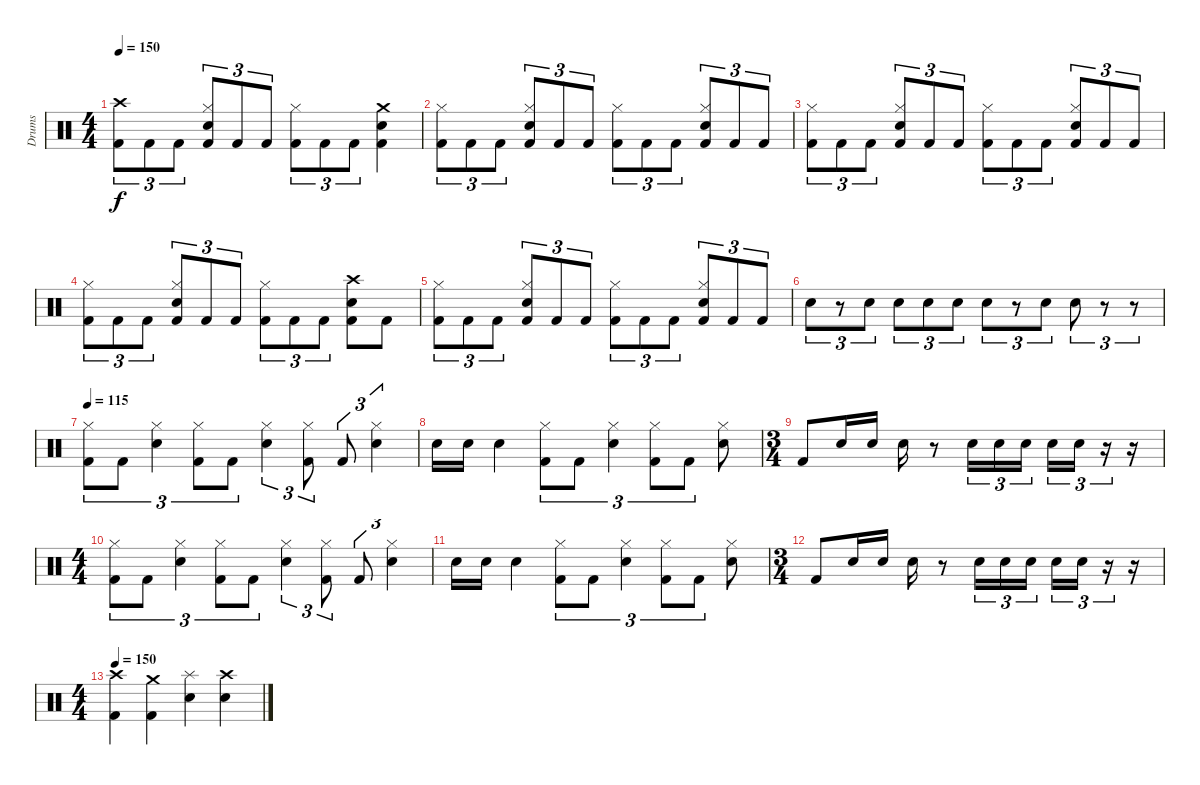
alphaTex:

\track ("Drums" "Drums") {instrument percussion}
\staff {score}
\articulation defaults
\ts (4 4)
\tempo 150
\clef neutral
\ks c
("Crash high (hit)" "Kick (hit) 2").8{tu (3 2) dy f} "Kick (hit) 2".8{tu (3 2)} "Kick (hit) 2".8{tu (3 2)} ("Hi-Hat (closed)" "Snare (hit) 2" "Kick (hit) 2").8{tu (3 2)} "Kick (hit) 2".8{tu (3 2)} "Kick (hit) 2".8{tu (3 2)} ("Hi-Hat (closed)" "Kick (hit) 2").8{tu (3 2)} "Kick (hit) 2".8{tu (3 2)} "Kick (hit) 2".8{tu (3 2)} ("Crash medium (hit)" "Snare (hit) 2" "Kick (hit) 2").4 |
("Hi-Hat (closed)" "Kick (hit) 2").8{tu (3 2)} "Kick (hit) 2".8{tu (3 2)} "Kick (hit) 2".8{tu (3 2)} ("Hi-Hat (closed)" "Snare (hit) 2" "Kick (hit) 2").8{tu (3 2)} "Kick (hit) 2".8{tu (3 2)} "Kick (hit) 2".8{tu (3 2)} ("Hi-Hat (closed)" "Kick (hit) 2").8{tu (3 2)} "Kick (hit) 2".8{tu (3 2)} "Kick (hit) 2".8{tu (3 2)} ("Hi-Hat (closed)" "Snare (hit) 2" "Kick (hit) 2").8{tu (3 2)} "Kick (hit) 2".8{tu (3 2)} "Kick (hit) 2".8{tu (3 2)} |
("Hi-Hat (closed)" "Kick (hit) 2").8{tu (3 2)} "Kick (hit) 2".8{tu (3 2)} "Kick (hit) 2".8{tu (3 2)} ("Hi-Hat (closed)" "Snare (hit) 2" "Kick (hit) 2").8{tu (3 2)} "Kick (hit) 2".8{tu (3 2)} "Kick (hit) 2".8{tu (3 2)} ("Hi-Hat (closed)" "Kick (hit) 2").8{tu (3 2)} "Kick (hit) 2".8{tu (3 2)} "Kick (hit) 2".8{tu (3 2)} ("Hi-Hat (closed)" "Snare (hit) 2" "Kick (hit) 2").8{tu (3 2)} "Kick (hit) 2".8{tu (3 2)} "Kick (hit) 2".8{tu (3 2)} |
("Hi-Hat (closed)" "Kick (hit) 2").8{tu (3 2)} "Kick (hit) 2".8{tu (3 2)} "Kick (hit) 2".8{tu (3 2)} ("Hi-Hat (closed)" "Snare (hit) 2" "Kick (hit) 2").8{tu (3 2)} "Kick (hit) 2".8{tu (3 2)} "Kick (hit) 2".8{tu (3 2)} ("Hi-Hat (closed)" "Kick (hit) 2").8{tu (3 2)} "Kick (hit) 2".8{tu (3 2)} "Kick (hit) 2".8{tu (3 2)} ("Crash high (hit)" "Snare (hit) 2" "Kick (hit) 2").8 "Kick (hit) 2".8 |
("Hi-Hat (closed)" "Kick (hit) 2").8{tu (3 2)} "Kick (hit) 2".8{tu (3 2)} "Kick (hit) 2".8{tu (3 2)} ("Hi-Hat (closed)" "Snare (hit) 2" "Kick (hit) 2").8{tu (3 2)} "Kick (hit) 2".8{tu (3 2)} "Kick (hit) 2".8{tu (3 2)} ("Hi-Hat (closed)" "Kick (hit) 2").8{tu (3 2)} "Kick (hit) 2".8{tu (3 2)} "Kick (hit) 2".8{tu (3 2)} ("Hi-Hat (closed)" "Snare (hit) 2" "Kick (hit) 2").8{tu (3 2)} "Kick (hit) 2".8{tu (3 2)} "Kick (hit) 2".8{tu (3 2)} |
"Snare (hit) 2".8{tu (3 2)} r.8{tu (3 2)} "Snare (hit) 2".8{tu (3 2)} "Snare (hit) 2".8{tu (3 2)} "Snare (hit) 2".8{tu (3 2)} "Snare (hit) 2".8{tu (3 2)} "Snare (hit) 2".8{tu (3 2)} r.8{tu (3 2)} "Snare (hit) 2".8{tu (3 2)} "Snare (hit) 2".8{tu (3 2)} r.8{tu (3 2)} r.8{tu (3 2)} |
\tempo 110
\tempo 115
("Hi-Hat (closed)" "Kick (hit) 2").8{tu (3 2)} "Kick (hit) 2".8{tu (3 2)} ("Hi-Hat (closed)" "Snare (hit) 2").4{tu (3 2)} ("Hi-Hat (closed)" "Kick (hit) 2").8{tu (3 2)} "Kick (hit) 2".8{tu (3 2)} ("Hi-Hat (closed)" "Snare (hit) 2").4{tu (3 2)} ("Hi-Hat (closed)" "Kick (hit) 2").8{tu (3 2)} "Kick (hit) 2".8{tu (3 2)} ("Hi-Hat (closed)" "Snare (hit) 2").4{tu (3 2)} |
"Snare (hit) 2".16 "Snare (hit) 2".16 "Snare (hit) 2".4 ("Hi-Hat (closed)" "Kick (hit) 2").8{tu (3 2)} "Kick (hit) 2".8{tu (3 2)} ("Hi-Hat (closed)" "Snare (hit) 2").4{tu (3 2)} ("Hi-Hat (closed)" "Kick (hit) 2").8{tu (3 2)} "Kick (hit) 2".8{tu (3 2)} ("Hi-Hat (closed)" "Snare (hit) 2").8 |
\ts (3 4)
"Kick (hit) 2".8 "Snare (hit) 2".16 "Snare (hit) 2".16 "Snare (hit) 2".16 r.8 "Snare (hit) 2".16{tu (3 2)} "Snare (hit) 2".16{tu (3 2)} "Snare (hit) 2".16{tu (3 2) beam splitsecondary} "Snare (hit) 2".16{tu (3 2)} "Snare (hit) 2".16{tu (3 2)} r.16{tu (3 2)} r.16 |
\ts (4 4)
("Hi-Hat (closed)" "Kick (hit) 2").8{tu (3 2)} "Kick (hit) 2".8{tu (3 2)} ("Hi-Hat (closed)" "Snare (hit) 2").4{tu (3 2)} ("Hi-Hat (closed)" "Kick (hit) 2").8{tu (3 2)} "Kick (hit) 2".8{tu (3 2)} ("Hi-Hat (closed)" "Snare (hit) 2").4{tu (3 2)} ("Hi-Hat (closed)" "Kick (hit) 2").8{tu (3 2)} "Kick (hit) 2".8{tu (3 2)} ("Hi-Hat (closed)" "Snare (hit) 2").4{tu (3 2)} |
"Snare (hit) 2".16 "Snare (hit) 2".16 "Snare (hit) 2".4 ("Hi-Hat (closed)" "Kick (hit) 2").8{tu (3 2)} "Kick (hit) 2".8{tu (3 2)} ("Hi-Hat (closed)" "Snare (hit) 2").4{tu (3 2)} ("Hi-Hat (closed)" "Kick (hit) 2").8{tu (3 2)} "Kick (hit) 2".8{tu (3 2)} ("Hi-Hat (closed)" "Snare (hit) 2").8 |
\ts (3 4)
"Kick (hit) 2".8 "Snare (hit) 2".16 "Snare (hit) 2".16 "Snare (hit) 2".16 r.8 "Snare (hit) 2".16{tu (3 2)} "Snare (hit) 2".16{tu (3 2)} "Snare (hit) 2".16{tu (3 2) beam splitsecondary} "Snare (hit) 2".16{tu (3 2)} "Snare (hit) 2".16{tu (3 2)} r.16{tu (3 2)} r.16 |
\ts (4 4)
\tempo 150
("Crash high (hit)" "Kick (hit) 2").4 ("Crash medium (hit)" "Kick (hit) 2").4 ("Splash (hit)" "Snare (hit) 2").4 ("Crash high (hit)" "Snare (hit) 2").4
